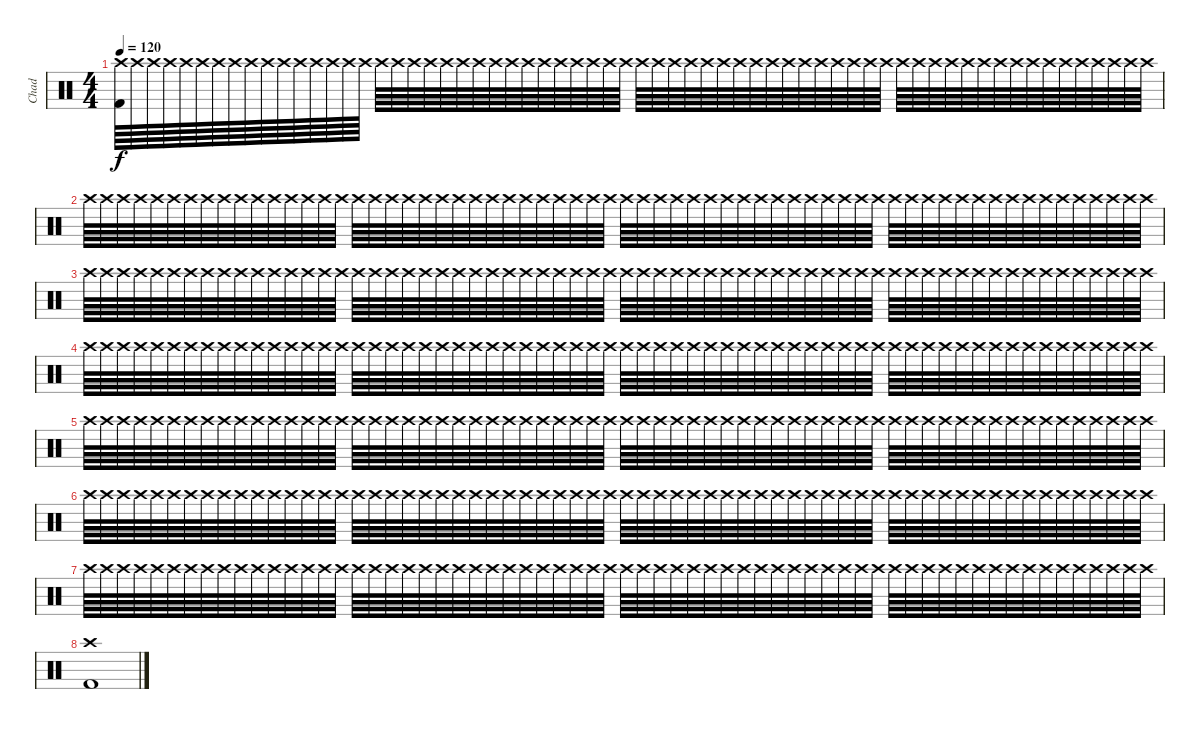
\track ("Chad" "Chad") {instrument percussion}
\staff {score}
\articulation defaults
\ts (4 4)
\tempo 120
\clef neutral
\ks c
("Crash high (hit)" "Kick (hit) 2").64{dy f} "Crash high (hit)".64 "Crash high (hit)".64 "Crash high (hit)".64 "Crash high (hit)".64 "Crash high (hit)".64 "Crash high (hit)".64 "Crash high (hit)".64 "Crash high (hit)".64 "Crash high (hit)".64 "Crash high (hit)".64 "Crash high (hit)".64 "Crash high (hit)".64 "Crash high (hit)".64 "Crash high (hit)".64 "Crash high (hit)".64 "Crash high (hit)".64 "Crash high (hit)".64 "Crash high (hit)".64 "Crash high (hit)".64 "Crash high (hit)".64 "Crash high (hit)".64 "Crash high (hit)".64 "Crash high (hit)".64 "Crash high (hit)".64 "Crash high (hit)".64 "Crash high (hit)".64 "Crash high (hit)".64 "Crash high (hit)".64 "Crash high (hit)".64 "Crash high (hit)".64 "Crash high (hit)".64 "Crash high (hit)".64 "Crash high (hit)".64 "Crash high (hit)".64 "Crash high (hit)".64 "Crash high (hit)".64 "Crash high (hit)".64 "Crash high (hit)".64 "Crash high (hit)".64 "Crash high (hit)".64 "Crash high (hit)".64 "Crash high (hit)".64 "Crash high (hit)".64 "Crash high (hit)".64 "Crash high (hit)".64 "Crash high (hit)".64 "Crash high (hit)".64 "Crash high (hit)".64 "Crash high (hit)".64 "Crash high (hit)".64 "Crash high (hit)".64 "Crash high (hit)".64 "Crash high (hit)".64 "Crash high (hit)".64 "Crash high (hit)".64 "Crash high (hit)".64 "Crash high (hit)".64 "Crash high (hit)".64 "Crash high (hit)".64 "Crash high (hit)".64 "Crash high (hit)".64 "Crash high (hit)".64 "Crash high (hit)".64 |
"Crash high (hit)".64 "Crash high (hit)".64 "Crash high (hit)".64 "Crash high (hit)".64 "Crash high (hit)".64 "Crash high (hit)".64 "Crash high (hit)".64 "Crash high (hit)".64 "Crash high (hit)".64 "Crash high (hit)".64 "Crash high (hit)".64 "Crash high (hit)".64 "Crash high (hit)".64 "Crash high (hit)".64 "Crash high (hit)".64 "Crash high (hit)".64 "Crash high (hit)".64 "Crash high (hit)".64 "Crash high (hit)".64 "Crash high (hit)".64 "Crash high (hit)".64 "Crash high (hit)".64 "Crash high (hit)".64 "Crash high (hit)".64 "Crash high (hit)".64 "Crash high (hit)".64 "Crash high (hit)".64 "Crash high (hit)".64 "Crash high (hit)".64 "Crash high (hit)".64 "Crash high (hit)".64 "Crash high (hit)".64 "Crash high (hit)".64 "Crash high (hit)".64 "Crash high (hit)".64 "Crash high (hit)".64 "Crash high (hit)".64 "Crash high (hit)".64 "Crash high (hit)".64 "Crash high (hit)".64 "Crash high (hit)".64 "Crash high (hit)".64 "Crash high (hit)".64 "Crash high (hit)".64 "Crash high (hit)".64 "Crash high (hit)".64 "Crash high (hit)".64 "Crash high (hit)".64 "Crash high (hit)".64 "Crash high (hit)".64 "Crash high (hit)".64 "Crash high (hit)".64 "Crash high (hit)".64 "Crash high (hit)".64 "Crash high (hit)".64 "Crash high (hit)".64 "Crash high (hit)".64 "Crash high (hit)".64 "Crash high (hit)".64 "Crash high (hit)".64 "Crash high (hit)".64 "Crash high (hit)".64 "Crash high (hit)".64 "Crash high (hit)".64 |
"Crash high (hit)".64 "Crash high (hit)".64 "Crash high (hit)".64 "Crash high (hit)".64 "Crash high (hit)".64 "Crash high (hit)".64 "Crash high (hit)".64 "Crash high (hit)".64 "Crash high (hit)".64 "Crash high (hit)".64 "Crash high (hit)".64 "Crash high (hit)".64 "Crash high (hit)".64 "Crash high (hit)".64 "Crash high (hit)".64 "Crash high (hit)".64 "Crash high (hit)".64 "Crash high (hit)".64 "Crash high (hit)".64 "Crash high (hit)".64 "Crash high (hit)".64 "Crash high (hit)".64 "Crash high (hit)".64 "Crash high (hit)".64 "Crash high (hit)".64 "Crash high (hit)".64 "Crash high (hit)".64 "Crash high (hit)".64 "Crash high (hit)".64 "Crash high (hit)".64 "Crash high (hit)".64 "Crash high (hit)".64 "Crash high (hit)".64 "Crash high (hit)".64 "Crash high (hit)".64 "Crash high (hit)".64 "Crash high (hit)".64 "Crash high (hit)".64 "Crash high (hit)".64 "Crash high (hit)".64 "Crash high (hit)".64 "Crash high (hit)".64 "Crash high (hit)".64 "Crash high (hit)".64 "Crash high (hit)".64 "Crash high (hit)".64 "Crash high (hit)".64 "Crash high (hit)".64 "Crash high (hit)".64 "Crash high (hit)".64 "Crash high (hit)".64 "Crash high (hit)".64 "Crash high (hit)".64 "Crash high (hit)".64 "Crash high (hit)".64 "Crash high (hit)".64 "Crash high (hit)".64 "Crash high (hit)".64 "Crash high (hit)".64 "Crash high (hit)".64 "Crash high (hit)".64 "Crash high (hit)".64 "Crash high (hit)".64 "Crash high (hit)".64 |
"Crash high (hit)".64 "Crash high (hit)".64 "Crash high (hit)".64 "Crash high (hit)".64 "Crash high (hit)".64 "Crash high (hit)".64 "Crash high (hit)".64 "Crash high (hit)".64 "Crash high (hit)".64 "Crash high (hit)".64 "Crash high (hit)".64 "Crash high (hit)".64 "Crash high (hit)".64 "Crash high (hit)".64 "Crash high (hit)".64 "Crash high (hit)".64 "Crash high (hit)".64 "Crash high (hit)".64 "Crash high (hit)".64 "Crash high (hit)".64 "Crash high (hit)".64 "Crash high (hit)".64 "Crash high (hit)".64 "Crash high (hit)".64 "Crash high (hit)".64 "Crash high (hit)".64 "Crash high (hit)".64 "Crash high (hit)".64 "Crash high (hit)".64 "Crash high (hit)".64 "Crash high (hit)".64 "Crash high (hit)".64 "Crash high (hit)".64 "Crash high (hit)".64 "Crash high (hit)".64 "Crash high (hit)".64 "Crash high (hit)".64 "Crash high (hit)".64 "Crash high (hit)".64 "Crash high (hit)".64 "Crash high (hit)".64 "Crash high (hit)".64 "Crash high (hit)".64 "Crash high (hit)".64 "Crash high (hit)".64 "Crash high (hit)".64 "Crash high (hit)".64 "Crash high (hit)".64 "Crash high (hit)".64 "Crash high (hit)".64 "Crash high (hit)".64 "Crash high (hit)".64 "Crash high (hit)".64 "Crash high (hit)".64 "Crash high (hit)".64 "Crash high (hit)".64 "Crash high (hit)".64 "Crash high (hit)".64 "Crash high (hit)".64 "Crash high (hit)".64 "Crash high (hit)".64 "Crash high (hit)".64 "Crash high (hit)".64 "Crash high (hit)".64 |
"Crash high (hit)".64 "Crash high (hit)".64 "Crash high (hit)".64 "Crash high (hit)".64 "Crash high (hit)".64 "Crash high (hit)".64 "Crash high (hit)".64 "Crash high (hit)".64 "Crash high (hit)".64 "Crash high (hit)".64 "Crash high (hit)".64 "Crash high (hit)".64 "Crash high (hit)".64 "Crash high (hit)".64 "Crash high (hit)".64 "Crash high (hit)".64 "Crash high (hit)".64 "Crash high (hit)".64 "Crash high (hit)".64 "Crash high (hit)".64 "Crash high (hit)".64 "Crash high (hit)".64 "Crash high (hit)".64 "Crash high (hit)".64 "Crash high (hit)".64 "Crash high (hit)".64 "Crash high (hit)".64 "Crash high (hit)".64 "Crash high (hit)".64 "Crash high (hit)".64 "Crash high (hit)".64 "Crash high (hit)".64 "Crash high (hit)".64 "Crash high (hit)".64 "Crash high (hit)".64 "Crash high (hit)".64 "Crash high (hit)".64 "Crash high (hit)".64 "Crash high (hit)".64 "Crash high (hit)".64 "Crash high (hit)".64 "Crash high (hit)".64 "Crash high (hit)".64 "Crash high (hit)".64 "Crash high (hit)".64 "Crash high (hit)".64 "Crash high (hit)".64 "Crash high (hit)".64 "Crash high (hit)".64 "Crash high (hit)".64 "Crash high (hit)".64 "Crash high (hit)".64 "Crash high (hit)".64 "Crash high (hit)".64 "Crash high (hit)".64 "Crash high (hit)".64 "Crash high (hit)".64 "Crash high (hit)".64 "Crash high (hit)".64 "Crash high (hit)".64 "Crash high (hit)".64 "Crash high (hit)".64 "Crash high (hit)".64 "Crash high (hit)".64 |
"Crash high (hit)".64 "Crash high (hit)".64 "Crash high (hit)".64 "Crash high (hit)".64 "Crash high (hit)".64 "Crash high (hit)".64 "Crash high (hit)".64 "Crash high (hit)".64 "Crash high (hit)".64 "Crash high (hit)".64 "Crash high (hit)".64 "Crash high (hit)".64 "Crash high (hit)".64 "Crash high (hit)".64 "Crash high (hit)".64 "Crash high (hit)".64 "Crash high (hit)".64 "Crash high (hit)".64 "Crash high (hit)".64 "Crash high (hit)".64 "Crash high (hit)".64 "Crash high (hit)".64 "Crash high (hit)".64 "Crash high (hit)".64 "Crash high (hit)".64 "Crash high (hit)".64 "Crash high (hit)".64 "Crash high (hit)".64 "Crash high (hit)".64 "Crash high (hit)".64 "Crash high (hit)".64 "Crash high (hit)".64 "Crash high (hit)".64 "Crash high (hit)".64 "Crash high (hit)".64 "Crash high (hit)".64 "Crash high (hit)".64 "Crash high (hit)".64 "Crash high (hit)".64 "Crash high (hit)".64 "Crash high (hit)".64 "Crash high (hit)".64 "Crash high (hit)".64 "Crash high (hit)".64 "Crash high (hit)".64 "Crash high (hit)".64 "Crash high (hit)".64 "Crash high (hit)".64 "Crash high (hit)".64 "Crash high (hit)".64 "Crash high (hit)".64 "Crash high (hit)".64 "Crash high (hit)".64 "Crash high (hit)".64 "Crash high (hit)".64 "Crash high (hit)".64 "Crash high (hit)".64 "Crash high (hit)".64 "Crash high (hit)".64 "Crash high (hit)".64 "Crash high (hit)".64 "Crash high (hit)".64 "Crash high (hit)".64 "Crash high (hit)".64 |
"Crash high (hit)".64 "Crash high (hit)".64 "Crash high (hit)".64 "Crash high (hit)".64 "Crash high (hit)".64 "Crash high (hit)".64 "Crash high (hit)".64 "Crash high (hit)".64 "Crash high (hit)".64 "Crash high (hit)".64 "Crash high (hit)".64 "Crash high (hit)".64 "Crash high (hit)".64 "Crash high (hit)".64 "Crash high (hit)".64 "Crash high (hit)".64 "Crash high (hit)".64 "Crash high (hit)".64 "Crash high (hit)".64 "Crash high (hit)".64 "Crash high (hit)".64 "Crash high (hit)".64 "Crash high (hit)".64 "Crash high (hit)".64 "Crash high (hit)".64 "Crash high (hit)".64 "Crash high (hit)".64 "Crash high (hit)".64 "Crash high (hit)".64 "Crash high (hit)".64 "Crash high (hit)".64 "Crash high (hit)".64 "Crash high (hit)".64 "Crash high (hit)".64 "Crash high (hit)".64 "Crash high (hit)".64 "Crash high (hit)".64 "Crash high (hit)".64 "Crash high (hit)".64 "Crash high (hit)".64 "Crash high (hit)".64 "Crash high (hit)".64 "Crash high (hit)".64 "Crash high (hit)".64 "Crash high (hit)".64 "Crash high (hit)".64 "Crash high (hit)".64 "Crash high (hit)".64 "Crash high (hit)".64 "Crash high (hit)".64 "Crash high (hit)".64 "Crash high (hit)".64 "Crash high (hit)".64 "Crash high (hit)".64 "Crash high (hit)".64 "Crash high (hit)".64 "Crash high (hit)".64 "Crash high (hit)".64 "Crash high (hit)".64 "Crash high (hit)".64 "Crash high (hit)".64 "Crash high (hit)".64 "Crash high (hit)".64 "Crash high (hit)".64 |
("Crash high (hit)" "Kick (hit) 2").1
